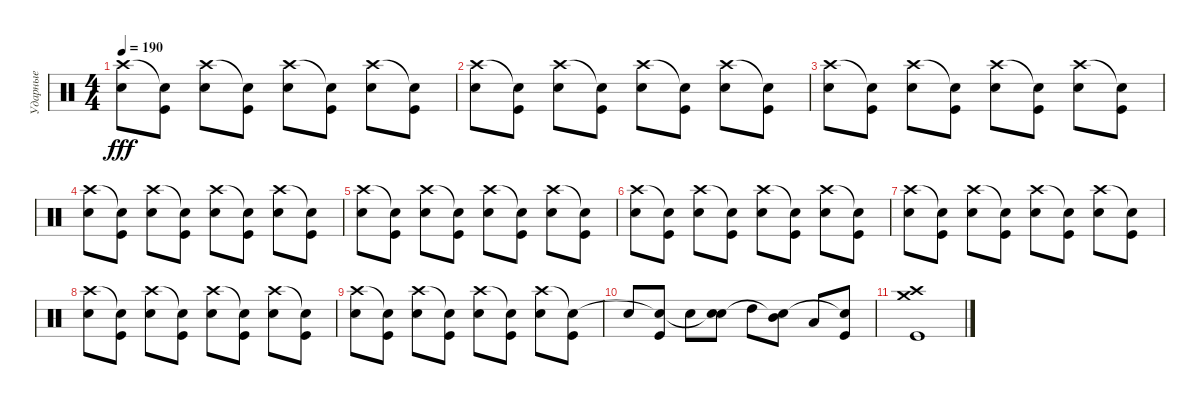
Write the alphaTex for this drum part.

\track ("Ударные" "Ударные") {instrument percussion}
\staff {score}
\articulation defaults
\ts (4 4)
\tempo 190
\clef neutral
\ks c
("Electric Snare (hit)" "Crash high (hit)").8{dy fff} ("Kick (hit)" "Snare (hit)"{t}).8 ("Electric Snare (hit)" "Crash high (hit)").8 ("Kick (hit)" "Snare (hit)"{t}).8 ("Electric Snare (hit)" "Crash high (hit)").8 ("Kick (hit)" "Snare (hit)"{t}).8 ("Electric Snare (hit)" "Crash high (hit)").8 ("Kick (hit)" "Snare (hit)"{t}).8 |
("Electric Snare (hit)" "Crash high (hit)").8 ("Kick (hit)" "Snare (hit)"{t}).8 ("Electric Snare (hit)" "Crash high (hit)").8 ("Kick (hit)" "Snare (hit)"{t}).8 ("Electric Snare (hit)" "Crash high (hit)").8 ("Kick (hit)" "Snare (hit)"{t}).8 ("Electric Snare (hit)" "Crash high (hit)").8 ("Kick (hit)" "Snare (hit)"{t}).8 |
("Electric Snare (hit)" "Crash high (hit)").8 ("Kick (hit)" "Snare (hit)"{t}).8 ("Electric Snare (hit)" "Crash high (hit)").8 ("Kick (hit)" "Snare (hit)"{t}).8 ("Electric Snare (hit)" "Crash high (hit)").8 ("Kick (hit)" "Snare (hit)"{t}).8 ("Electric Snare (hit)" "Crash high (hit)").8 ("Kick (hit)" "Snare (hit)"{t}).8 |
("Electric Snare (hit)" "Crash high (hit)").8 ("Kick (hit)" "Snare (hit)"{t}).8 ("Electric Snare (hit)" "Crash high (hit)").8 ("Kick (hit)" "Snare (hit)"{t}).8 ("Electric Snare (hit)" "Crash high (hit)").8 ("Kick (hit)" "Snare (hit)"{t}).8 ("Electric Snare (hit)" "Crash high (hit)").8 ("Kick (hit)" "Snare (hit)"{t}).8 |
("Electric Snare (hit)" "Crash high (hit)").8 ("Kick (hit)" "Snare (hit)"{t}).8 ("Electric Snare (hit)" "Crash high (hit)").8 ("Kick (hit)" "Snare (hit)"{t}).8 ("Electric Snare (hit)" "Crash high (hit)").8 ("Kick (hit)" "Snare (hit)"{t}).8 ("Electric Snare (hit)" "Crash high (hit)").8 ("Kick (hit)" "Snare (hit)"{t}).8 |
("Electric Snare (hit)" "Crash high (hit)").8 ("Kick (hit)" "Snare (hit)"{t}).8 ("Electric Snare (hit)" "Crash high (hit)").8 ("Kick (hit)" "Snare (hit)"{t}).8 ("Electric Snare (hit)" "Crash high (hit)").8 ("Kick (hit)" "Snare (hit)"{t}).8 ("Electric Snare (hit)" "Crash high (hit)").8 ("Kick (hit)" "Snare (hit)"{t}).8 |
("Electric Snare (hit)" "Crash high (hit)").8 ("Kick (hit)" "Snare (hit)"{t}).8 ("Electric Snare (hit)" "Crash high (hit)").8 ("Kick (hit)" "Snare (hit)"{t}).8 ("Electric Snare (hit)" "Crash high (hit)").8 ("Kick (hit)" "Snare (hit)"{t}).8 ("Electric Snare (hit)" "Crash high (hit)").8 ("Kick (hit)" "Snare (hit)"{t}).8 |
("Electric Snare (hit)" "Crash high (hit)").8 ("Kick (hit)" "Snare (hit)"{t}).8 ("Electric Snare (hit)" "Crash high (hit)").8 ("Kick (hit)" "Snare (hit)"{t}).8 ("Electric Snare (hit)" "Crash high (hit)").8 ("Kick (hit)" "Snare (hit)"{t}).8 ("Electric Snare (hit)" "Crash high (hit)").8 ("Kick (hit)" "Snare (hit)"{t}).8 |
("Electric Snare (hit)" "Crash high (hit)").8 ("Kick (hit)" "Snare (hit)"{t}).8 ("Electric Snare (hit)" "Crash high (hit)").8 ("Kick (hit)" "Snare (hit)"{t}).8 ("Electric Snare (hit)" "Crash high (hit)").8 ("Kick (hit)" "Snare (hit)"{t}).8 ("Electric Snare (hit)" "Crash high (hit)").8 ("Kick (hit)" "Snare (hit)"{t}).8 |
"Electric Snare (hit)".8 ("Kick (hit)" "Snare (hit)"{t}).8 "Electric Snare (hit)".8 ("Electric Snare (hit)" "Snare (hit)"{t}).8 "High Tom (hit)".8 ("Mid Tom (hit)" "Snare (hit)"{t}).8 "Low Tom (hit)".8 ("Kick (hit)" "Snare (hit)"{t}).8 |
("Crash medium (hit)" "Crash high (hit)" "Kick (hit)").1
